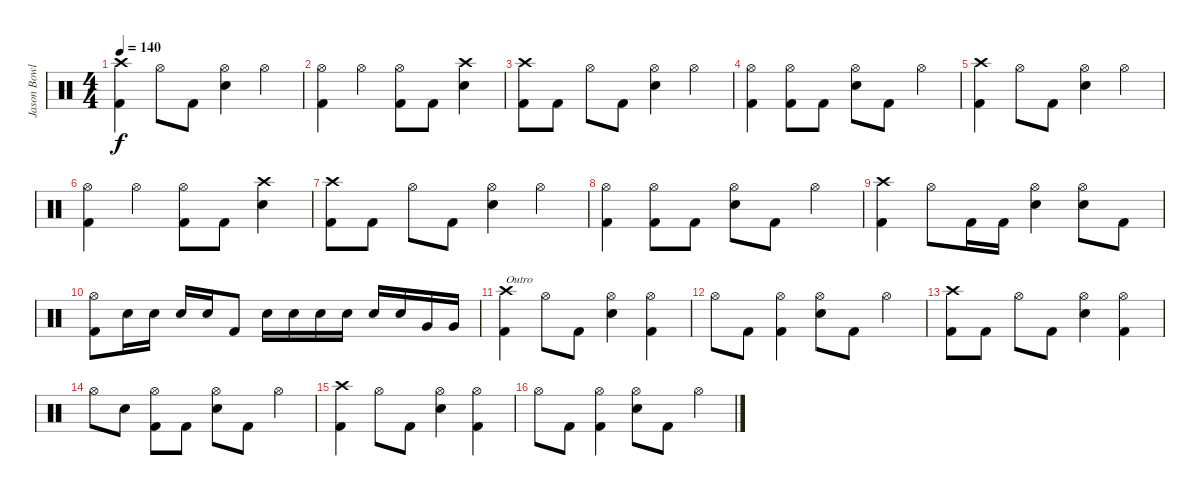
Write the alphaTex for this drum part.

\track ("Jason Bowld" "Jason Bowl") {instrument percussion}
\staff {score}
\articulation defaults
\ts (4 4)
\tempo 140
\clef neutral
\ks c
("Crash high (hit)" "Kick (hit) 2").4{dy f} "Hi-Hat (open)".8 "Kick (hit) 2".8 ("Hi-Hat (open)" "Snare (hit) 2").4 "Hi-Hat (open)".4 |
("Hi-Hat (open)" "Kick (hit) 2").4 "Hi-Hat (open)".4 ("Hi-Hat (open)" "Kick (hit) 2").8 "Kick (hit) 2".8 ("Crash high (hit)" "Snare (hit) 2").4 |
("Crash high (hit)" "Kick (hit) 2").8 "Kick (hit) 2".8 "Hi-Hat (open)".8 "Kick (hit) 2".8 ("Hi-Hat (open)" "Snare (hit) 2").4 "Hi-Hat (open)".4 |
("Hi-Hat (open)" "Kick (hit) 2").4 ("Hi-Hat (open)" "Kick (hit) 2").8 "Kick (hit) 2".8 ("Hi-Hat (open)" "Snare (hit) 2").8 "Kick (hit) 2".8 "Hi-Hat (open)".4 |
("Crash high (hit)" "Kick (hit) 2").4 "Hi-Hat (open)".8 "Kick (hit) 2".8 ("Hi-Hat (open)" "Snare (hit) 2").4 "Hi-Hat (open)".4 |
("Hi-Hat (open)" "Kick (hit) 2").4 "Hi-Hat (open)".4 ("Hi-Hat (open)" "Kick (hit) 2").8 "Kick (hit) 2".8 ("Crash high (hit)" "Snare (hit) 2").4 |
("Crash high (hit)" "Kick (hit) 2").8 "Kick (hit) 2".8 "Hi-Hat (open)".8 "Kick (hit) 2".8 ("Hi-Hat (open)" "Snare (hit) 2").4 "Hi-Hat (open)".4 |
("Hi-Hat (open)" "Kick (hit) 2").4 ("Hi-Hat (open)" "Kick (hit) 2").8 "Kick (hit) 2".8 ("Hi-Hat (open)" "Snare (hit) 2").8 "Kick (hit) 2".8 "Hi-Hat (open)".4 |
("Crash high (hit)" "Kick (hit) 2").4 "Hi-Hat (open)".8 "Kick (hit) 2".16 "Kick (hit) 2".16 ("Hi-Hat (open)" "Snare (hit) 2").4 ("Hi-Hat (open)" "Snare (hit) 2").8 "Kick (hit) 2".8 |
("Hi-Hat (open)" "Kick (hit) 2").8 "Snare (hit) 2".16 "Snare (hit) 2".16 "Snare (hit) 2".16 "Snare (hit) 2".16 "Kick (hit) 2".8 "Snare (hit) 2".16 "Snare (hit) 2".16 "Snare (hit) 2".16 "Snare (hit) 2".16 "Snare (hit) 2".16 "Snare (hit) 2".16 "Very Low Tom (hit)".16 "Very Low Tom (hit)".16 |
("Crash high (hit)" "Kick (hit) 2").4{txt "Outro"} "Hi-Hat (open)".8 "Kick (hit) 2".8 ("Hi-Hat (open)" "Snare (hit) 2").4 ("Hi-Hat (open)" "Kick (hit) 2").4 |
"Hi-Hat (open)".8 "Kick (hit) 2".8 ("Hi-Hat (open)" "Kick (hit) 2").4 ("Hi-Hat (open)" "Snare (hit) 2").8 "Kick (hit) 2".8 "Hi-Hat (open)".4 |
("Crash high (hit)" "Kick (hit) 2").8 "Kick (hit) 2".8 "Hi-Hat (open)".8 "Kick (hit) 2".8 ("Hi-Hat (open)" "Snare (hit) 2").4 ("Hi-Hat (open)" "Kick (hit) 2").4 |
"Hi-Hat (open)".8 "Snare (hit) 2".8 ("Hi-Hat (open)" "Kick (hit) 2").8 "Kick (hit) 2".8 ("Hi-Hat (open)" "Snare (hit) 2").8 "Kick (hit) 2".8 "Hi-Hat (open)".4 |
("Crash high (hit)" "Kick (hit) 2").4 "Hi-Hat (open)".8 "Kick (hit) 2".8 ("Hi-Hat (open)" "Snare (hit) 2").4 ("Hi-Hat (open)" "Kick (hit) 2").4 |
"Hi-Hat (open)".8 "Kick (hit) 2".8 ("Hi-Hat (open)" "Kick (hit) 2").4 ("Hi-Hat (open)" "Snare (hit) 2").8 "Kick (hit) 2".8 "Hi-Hat (open)".4
